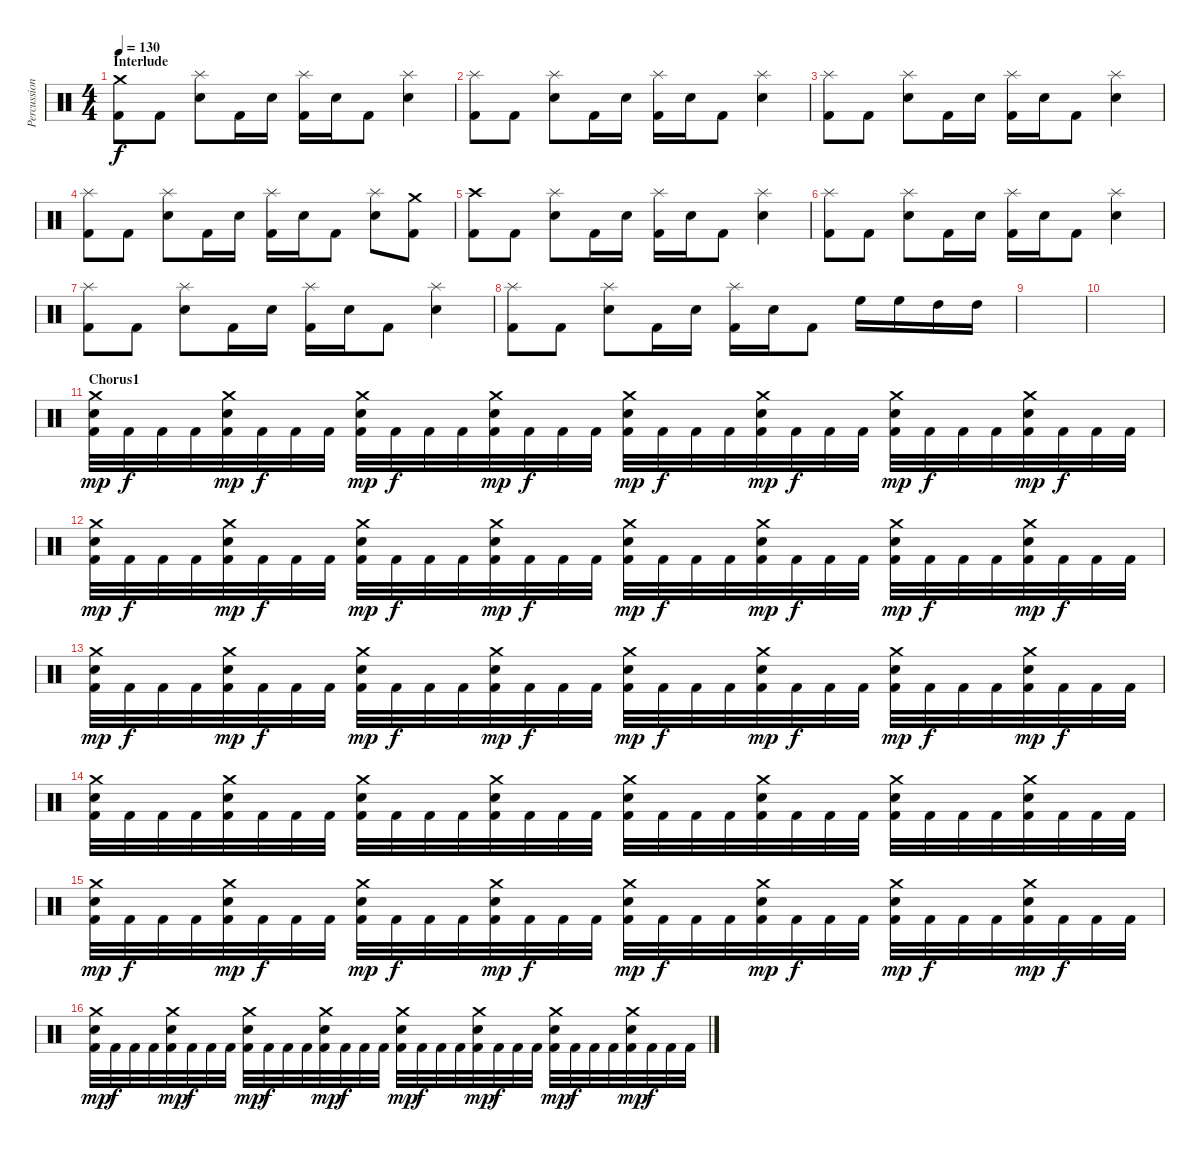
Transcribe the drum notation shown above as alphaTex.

\track ("Percussion" "Percussion") {instrument percussion}
\staff {score}
\articulation defaults
\ts (4 4)
\section ("" "Interlude")
\tempo 130
\clef neutral
\ks c
("Crash medium (hit)" "Kick (hit) 2").8{dy f} "Kick (hit) 2".8 ("Splash (hit)" "Electric Snare (hit)").8 "Kick (hit) 2".16 "Electric Snare (hit)".16 ("Splash (hit)" "Kick (hit) 2").16 "Electric Snare (hit)".16 "Kick (hit) 2".8 ("Splash (hit)" "Electric Snare (hit)").4 |
("Splash (hit)" "Kick (hit) 2").8 "Kick (hit) 2".8 ("Splash (hit)" "Electric Snare (hit)").8 "Kick (hit) 2".16 "Electric Snare (hit)".16 ("Splash (hit)" "Kick (hit) 2").16 "Electric Snare (hit)".16 "Kick (hit) 2".8 ("Splash (hit)" "Electric Snare (hit)").4 |
("Splash (hit)" "Kick (hit) 2").8 "Kick (hit) 2".8 ("Splash (hit)" "Electric Snare (hit)").8 "Kick (hit) 2".16 "Electric Snare (hit)".16 ("Splash (hit)" "Kick (hit) 2").16 "Electric Snare (hit)".16 "Kick (hit) 2".8 ("Splash (hit)" "Electric Snare (hit)").4 |
("Splash (hit)" "Kick (hit) 2").8 "Kick (hit) 2".8 ("Splash (hit)" "Electric Snare (hit)").8 "Kick (hit) 2".16 "Electric Snare (hit)".16 ("Splash (hit)" "Kick (hit) 2").16 "Electric Snare (hit)".16 "Kick (hit) 2".8 ("Splash (hit)" "Electric Snare (hit)").8 ("Crash medium (hit)" "Kick (hit) 2").8 |
("Crash high (hit)" "Kick (hit) 2").8 "Kick (hit) 2".8 ("Splash (hit)" "Electric Snare (hit)").8 "Kick (hit) 2".16 "Electric Snare (hit)".16 ("Splash (hit)" "Kick (hit) 2").16 "Electric Snare (hit)".16 "Kick (hit) 2".8 ("Splash (hit)" "Electric Snare (hit)").4 |
("Splash (hit)" "Kick (hit) 2").8 "Kick (hit) 2".8 ("Splash (hit)" "Electric Snare (hit)").8 "Kick (hit) 2".16 "Electric Snare (hit)".16 ("Splash (hit)" "Kick (hit) 2").16 "Electric Snare (hit)".16 "Kick (hit) 2".8 ("Splash (hit)" "Electric Snare (hit)").4 |
("Splash (hit)" "Kick (hit) 2").8 "Kick (hit) 2".8 ("Splash (hit)" "Electric Snare (hit)").8 "Kick (hit) 2".16 "Electric Snare (hit)".16 ("Splash (hit)" "Kick (hit) 2").16 "Electric Snare (hit)".16 "Kick (hit) 2".8 ("Splash (hit)" "Electric Snare (hit)").4 |
("Splash (hit)" "Kick (hit) 2").8 "Kick (hit) 2".8 ("Splash (hit)" "Electric Snare (hit)").8 "Kick (hit) 2".16 "Electric Snare (hit)".16 ("Splash (hit)" "Kick (hit) 2").16 "Electric Snare (hit)".16 "Kick (hit) 2".8 "High Floor Tom (hit)".16 "High Floor Tom (hit)".16 "High Tom (hit)".16 "High Tom (hit)".16 |
|
|
\section ("" "Chorus1")
("Crash medium (hit)" "Electric Snare (hit)" "Kick (hit) 2").32{dy mp} "Kick (hit) 2".32{dy f} "Kick (hit) 2".32 "Kick (hit) 2".32 ("Crash medium (hit)" "Electric Snare (hit)" "Kick (hit) 2").32{dy mp} "Kick (hit) 2".32{dy f} "Kick (hit) 2".32 "Kick (hit) 2".32 ("Crash medium (hit)" "Electric Snare (hit)" "Kick (hit) 2").32{dy mp} "Kick (hit) 2".32{dy f} "Kick (hit) 2".32 "Kick (hit) 2".32 ("Crash medium (hit)" "Electric Snare (hit)" "Kick (hit) 2").32{dy mp} "Kick (hit) 2".32{dy f} "Kick (hit) 2".32 "Kick (hit) 2".32 ("Crash medium (hit)" "Electric Snare (hit)" "Kick (hit) 2").32{dy mp} "Kick (hit) 2".32{dy f} "Kick (hit) 2".32 "Kick (hit) 2".32 ("Crash medium (hit)" "Electric Snare (hit)" "Kick (hit) 2").32{dy mp} "Kick (hit) 2".32{dy f} "Kick (hit) 2".32 "Kick (hit) 2".32 ("Crash medium (hit)" "Electric Snare (hit)" "Kick (hit) 2").32{dy mp} "Kick (hit) 2".32{dy f} "Kick (hit) 2".32 "Kick (hit) 2".32 ("Crash medium (hit)" "Electric Snare (hit)" "Kick (hit) 2").32{dy mp} "Kick (hit) 2".32{dy f} "Kick (hit) 2".32 "Kick (hit) 2".32 |
("Crash medium (hit)" "Electric Snare (hit)" "Kick (hit) 2").32{dy mp} "Kick (hit) 2".32{dy f} "Kick (hit) 2".32 "Kick (hit) 2".32 ("Crash medium (hit)" "Electric Snare (hit)" "Kick (hit) 2").32{dy mp} "Kick (hit) 2".32{dy f} "Kick (hit) 2".32 "Kick (hit) 2".32 ("Crash medium (hit)" "Electric Snare (hit)" "Kick (hit) 2").32{dy mp} "Kick (hit) 2".32{dy f} "Kick (hit) 2".32 "Kick (hit) 2".32 ("Crash medium (hit)" "Electric Snare (hit)" "Kick (hit) 2").32{dy mp} "Kick (hit) 2".32{dy f} "Kick (hit) 2".32 "Kick (hit) 2".32 ("Crash medium (hit)" "Electric Snare (hit)" "Kick (hit) 2").32{dy mp} "Kick (hit) 2".32{dy f} "Kick (hit) 2".32 "Kick (hit) 2".32 ("Crash medium (hit)" "Electric Snare (hit)" "Kick (hit) 2").32{dy mp} "Kick (hit) 2".32{dy f} "Kick (hit) 2".32 "Kick (hit) 2".32 ("Crash medium (hit)" "Electric Snare (hit)" "Kick (hit) 2").32{dy mp} "Kick (hit) 2".32{dy f} "Kick (hit) 2".32 "Kick (hit) 2".32 ("Crash medium (hit)" "Electric Snare (hit)" "Kick (hit) 2").32{dy mp} "Kick (hit) 2".32{dy f} "Kick (hit) 2".32 "Kick (hit) 2".32 |
("Crash medium (hit)" "Electric Snare (hit)" "Kick (hit) 2").32{dy mp} "Kick (hit) 2".32{dy f} "Kick (hit) 2".32 "Kick (hit) 2".32 ("Crash medium (hit)" "Electric Snare (hit)" "Kick (hit) 2").32{dy mp} "Kick (hit) 2".32{dy f} "Kick (hit) 2".32 "Kick (hit) 2".32 ("Crash medium (hit)" "Electric Snare (hit)" "Kick (hit) 2").32{dy mp} "Kick (hit) 2".32{dy f} "Kick (hit) 2".32 "Kick (hit) 2".32 ("Crash medium (hit)" "Electric Snare (hit)" "Kick (hit) 2").32{dy mp} "Kick (hit) 2".32{dy f} "Kick (hit) 2".32 "Kick (hit) 2".32 ("Crash medium (hit)" "Electric Snare (hit)" "Kick (hit) 2").32{dy mp} "Kick (hit) 2".32{dy f} "Kick (hit) 2".32 "Kick (hit) 2".32 ("Crash medium (hit)" "Electric Snare (hit)" "Kick (hit) 2").32{dy mp} "Kick (hit) 2".32{dy f} "Kick (hit) 2".32 "Kick (hit) 2".32 ("Crash medium (hit)" "Electric Snare (hit)" "Kick (hit) 2").32{dy mp} "Kick (hit) 2".32{dy f} "Kick (hit) 2".32 "Kick (hit) 2".32 ("Crash medium (hit)" "Electric Snare (hit)" "Kick (hit) 2").32{dy mp} "Kick (hit) 2".32{dy f} "Kick (hit) 2".32 "Kick (hit) 2".32 |
("Crash medium (hit)" "Electric Snare (hit)" "Kick (hit) 2").32 "Kick (hit) 2".32 "Kick (hit) 2".32 "Kick (hit) 2".32 ("Crash medium (hit)" "Electric Snare (hit)" "Kick (hit) 2").32 "Kick (hit) 2".32 "Kick (hit) 2".32 "Kick (hit) 2".32 ("Crash medium (hit)" "Electric Snare (hit)" "Kick (hit) 2").32 "Kick (hit) 2".32 "Kick (hit) 2".32 "Kick (hit) 2".32 ("Crash medium (hit)" "Electric Snare (hit)" "Kick (hit) 2").32 "Kick (hit) 2".32 "Kick (hit) 2".32 "Kick (hit) 2".32 ("Crash medium (hit)" "Electric Snare (hit)" "Kick (hit) 2").32 "Kick (hit) 2".32 "Kick (hit) 2".32 "Kick (hit) 2".32 ("Crash medium (hit)" "Electric Snare (hit)" "Kick (hit) 2").32 "Kick (hit) 2".32 "Kick (hit) 2".32 "Kick (hit) 2".32 ("Crash medium (hit)" "Electric Snare (hit)" "Kick (hit) 2").32 "Kick (hit) 2".32 "Kick (hit) 2".32 "Kick (hit) 2".32 ("Crash medium (hit)" "Electric Snare (hit)" "Kick (hit) 2").32 "Kick (hit) 2".32 "Kick (hit) 2".32 "Kick (hit) 2".32 |
("Crash medium (hit)" "Electric Snare (hit)" "Kick (hit) 2").32{dy mp} "Kick (hit) 2".32{dy f} "Kick (hit) 2".32 "Kick (hit) 2".32 ("Crash medium (hit)" "Electric Snare (hit)" "Kick (hit) 2").32{dy mp} "Kick (hit) 2".32{dy f} "Kick (hit) 2".32 "Kick (hit) 2".32 ("Crash medium (hit)" "Electric Snare (hit)" "Kick (hit) 2").32{dy mp} "Kick (hit) 2".32{dy f} "Kick (hit) 2".32 "Kick (hit) 2".32 ("Crash medium (hit)" "Electric Snare (hit)" "Kick (hit) 2").32{dy mp} "Kick (hit) 2".32{dy f} "Kick (hit) 2".32 "Kick (hit) 2".32 ("Crash medium (hit)" "Electric Snare (hit)" "Kick (hit) 2").32{dy mp} "Kick (hit) 2".32{dy f} "Kick (hit) 2".32 "Kick (hit) 2".32 ("Crash medium (hit)" "Electric Snare (hit)" "Kick (hit) 2").32{dy mp} "Kick (hit) 2".32{dy f} "Kick (hit) 2".32 "Kick (hit) 2".32 ("Crash medium (hit)" "Electric Snare (hit)" "Kick (hit) 2").32{dy mp} "Kick (hit) 2".32{dy f} "Kick (hit) 2".32 "Kick (hit) 2".32 ("Crash medium (hit)" "Electric Snare (hit)" "Kick (hit) 2").32{dy mp} "Kick (hit) 2".32{dy f} "Kick (hit) 2".32 "Kick (hit) 2".32 |
("Crash medium (hit)" "Electric Snare (hit)" "Kick (hit) 2").32{dy mp} "Kick (hit) 2".32{dy f} "Kick (hit) 2".32 "Kick (hit) 2".32 ("Crash medium (hit)" "Electric Snare (hit)" "Kick (hit) 2").32{dy mp} "Kick (hit) 2".32{dy f} "Kick (hit) 2".32 "Kick (hit) 2".32 ("Crash medium (hit)" "Electric Snare (hit)" "Kick (hit) 2").32{dy mp} "Kick (hit) 2".32{dy f} "Kick (hit) 2".32 "Kick (hit) 2".32 ("Crash medium (hit)" "Electric Snare (hit)" "Kick (hit) 2").32{dy mp} "Kick (hit) 2".32{dy f} "Kick (hit) 2".32 "Kick (hit) 2".32 ("Crash medium (hit)" "Electric Snare (hit)" "Kick (hit) 2").32{dy mp} "Kick (hit) 2".32{dy f} "Kick (hit) 2".32 "Kick (hit) 2".32 ("Crash medium (hit)" "Electric Snare (hit)" "Kick (hit) 2").32{dy mp} "Kick (hit) 2".32{dy f} "Kick (hit) 2".32 "Kick (hit) 2".32 ("Crash medium (hit)" "Electric Snare (hit)" "Kick (hit) 2").32{dy mp} "Kick (hit) 2".32{dy f} "Kick (hit) 2".32 "Kick (hit) 2".32 ("Crash medium (hit)" "Electric Snare (hit)" "Kick (hit) 2").32{dy mp} "Kick (hit) 2".32{dy f} "Kick (hit) 2".32 "Kick (hit) 2".32
